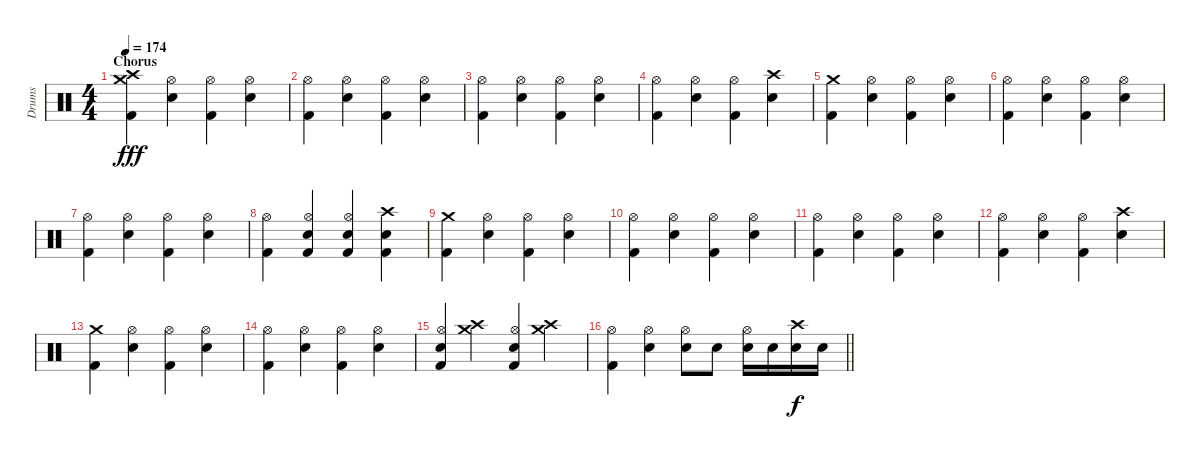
\track ("Drums" "Drums") {instrument percussion}
\staff {score}
\articulation defaults
\ts (4 4)
\section ("" "Chorus")
\tempo 174
\clef neutral
\ks c
("Crash high (hit)" "Crash medium (hit)" "Kick (hit) 2").4{dy fff} ("Hi-Hat (open)" "Electric Snare (hit)").4 ("Hi-Hat (open)" "Kick (hit) 2").4 ("Hi-Hat (open)" "Electric Snare (hit)").4 |
("Hi-Hat (open)" "Kick (hit) 2").4 ("Hi-Hat (open)" "Electric Snare (hit)").4 ("Hi-Hat (open)" "Kick (hit) 2").4 ("Hi-Hat (open)" "Electric Snare (hit)").4 |
("Hi-Hat (open)" "Kick (hit) 2").4 ("Hi-Hat (open)" "Electric Snare (hit)").4 ("Hi-Hat (open)" "Kick (hit) 2").4 ("Hi-Hat (open)" "Electric Snare (hit)").4 |
("Hi-Hat (open)" "Kick (hit) 2").4 ("Hi-Hat (open)" "Electric Snare (hit)").4 ("Hi-Hat (open)" "Kick (hit) 2").4 ("Crash high (hit)" "Electric Snare (hit)").4 |
("Crash medium (hit)" "Kick (hit) 2").4 ("Hi-Hat (open)" "Electric Snare (hit)").4 ("Hi-Hat (open)" "Kick (hit) 2").4 ("Hi-Hat (open)" "Electric Snare (hit)").4 |
("Hi-Hat (open)" "Kick (hit) 2").4 ("Hi-Hat (open)" "Electric Snare (hit)").4 ("Hi-Hat (open)" "Kick (hit) 2").4 ("Hi-Hat (open)" "Electric Snare (hit)").4 |
("Hi-Hat (open)" "Kick (hit) 2").4 ("Hi-Hat (open)" "Electric Snare (hit)").4 ("Hi-Hat (open)" "Kick (hit) 2").4 ("Hi-Hat (open)" "Electric Snare (hit)").4 |
("Hi-Hat (open)" "Kick (hit) 2").4 ("Hi-Hat (open)" "Electric Snare (hit)" "Kick (hit) 2").4 ("Hi-Hat (open)" "Electric Snare (hit)" "Kick (hit) 2").4 ("Crash high (hit)" "Electric Snare (hit)" "Kick (hit) 2").4 |
("Crash medium (hit)" "Kick (hit) 2").4 ("Hi-Hat (open)" "Electric Snare (hit)").4 ("Hi-Hat (open)" "Kick (hit) 2").4 ("Hi-Hat (open)" "Electric Snare (hit)").4 |
("Hi-Hat (open)" "Kick (hit) 2").4 ("Hi-Hat (open)" "Electric Snare (hit)").4 ("Hi-Hat (open)" "Kick (hit) 2").4 ("Hi-Hat (open)" "Electric Snare (hit)").4 |
("Hi-Hat (open)" "Kick (hit) 2").4 ("Hi-Hat (open)" "Electric Snare (hit)").4 ("Hi-Hat (open)" "Kick (hit) 2").4 ("Hi-Hat (open)" "Electric Snare (hit)").4 |
("Hi-Hat (open)" "Kick (hit) 2").4 ("Hi-Hat (open)" "Electric Snare (hit)").4 ("Hi-Hat (open)" "Kick (hit) 2").4 ("Crash high (hit)" "Electric Snare (hit)").4 |
("Crash medium (hit)" "Kick (hit) 2").4 ("Hi-Hat (open)" "Electric Snare (hit)").4 ("Hi-Hat (open)" "Kick (hit) 2").4 ("Hi-Hat (open)" "Electric Snare (hit)").4 |
("Hi-Hat (open)" "Kick (hit) 2").4 ("Hi-Hat (open)" "Electric Snare (hit)").4 ("Hi-Hat (open)" "Kick (hit) 2").4 ("Hi-Hat (open)" "Electric Snare (hit)").4 |
("Hi-Hat (open)" "Electric Snare (hit)" "Kick (hit) 2").4 ("Crash high (hit)" "Crash medium (hit)").4 ("Hi-Hat (open)" "Electric Snare (hit)" "Kick (hit) 2").4 ("Crash high (hit)" "Crash medium (hit)").4 |
\barLineRight lightlight
("Hi-Hat (open)" "Kick (hit) 2").4 ("Hi-Hat (open)" "Snare (hit) 2").4 ("Hi-Hat (open)" "Snare (hit) 2").8 "Snare (hit) 2".8 ("Hi-Hat (open)" "Snare (hit) 2").16 "Snare (hit) 2".16 ("Crash high (hit)" "Snare (hit) 2").16{dy f} "Snare (hit) 2".16
